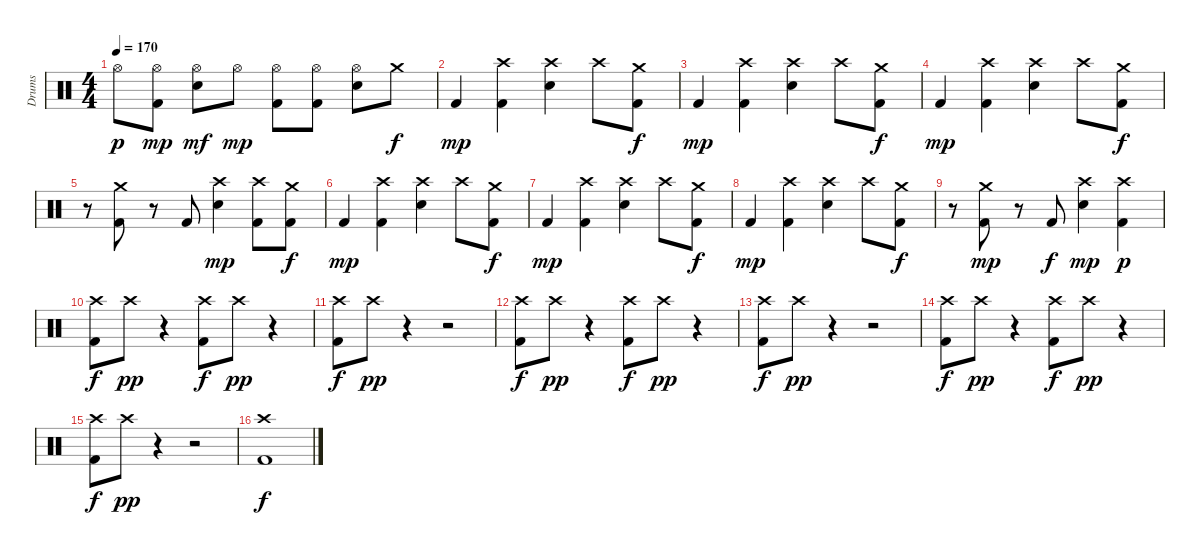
\track ("Drums" "Drums") {instrument percussion}
\staff {score}
\articulation defaults
\ts (4 4)
\tempo 170
\clef neutral
\ks c "Hi-Hat (open)".8{dy p}
("Hi-Hat (open)" "Kick (hit) 2").8{dy mp} ("Hi-Hat (open)" "Electric Snare (hit)").8{dy mf} "Hi-Hat (open)".8{dy mp} ("Hi-Hat (open)" "Kick (hit) 2").8 ("Hi-Hat (open)" "Kick (hit) 2").8 ("Hi-Hat (open)" "Electric Snare (hit)").8 "Crash medium (hit)".8{dy f} |
"Kick (hit) 2".4{dy mp} ("Crash high (hit)" "Kick (hit) 2").4 ("Crash high (hit)" "Electric Snare (hit)").4 "Crash high (hit)".8 ("Crash medium (hit)" "Kick (hit) 2").8{dy f} |
"Kick (hit) 2".4{dy mp} ("Crash high (hit)" "Kick (hit) 2").4 ("Crash high (hit)" "Electric Snare (hit)").4 "Crash high (hit)".8 ("Crash medium (hit)" "Kick (hit) 2").8{dy f} |
"Kick (hit) 2".4{dy mp} ("Crash high (hit)" "Kick (hit) 2").4 ("Crash high (hit)" "Electric Snare (hit)").4 "Crash high (hit)".8 ("Crash medium (hit)" "Kick (hit) 2").8{dy f} |
r.8 ("Crash medium (hit)" "Kick (hit) 2").8 r.8 "Kick (hit) 2".8 ("Crash high (hit)" "Electric Snare (hit)").4{dy mp} ("Crash high (hit)" "Kick (hit) 2").8 ("Crash medium (hit)" "Kick (hit) 2").8{dy f} |
"Kick (hit) 2".4{dy mp} ("Crash high (hit)" "Kick (hit) 2").4 ("Crash high (hit)" "Electric Snare (hit)").4 "Crash high (hit)".8 ("Crash medium (hit)" "Kick (hit) 2").8{dy f} |
"Kick (hit) 2".4{dy mp} ("Crash high (hit)" "Kick (hit) 2").4 ("Crash high (hit)" "Electric Snare (hit)").4 "Crash high (hit)".8 ("Crash medium (hit)" "Kick (hit) 2").8{dy f} |
"Kick (hit) 2".4{dy mp} ("Crash high (hit)" "Kick (hit) 2").4 ("Crash high (hit)" "Electric Snare (hit)").4 "Crash high (hit)".8 ("Crash medium (hit)" "Kick (hit) 2").8{dy f} |
r.8 ("Crash medium (hit)" "Kick (hit) 2").8{dy mp} r.8 "Kick (hit) 2".8{dy f} ("Crash high (hit)" "Electric Snare (hit)").4{dy mp} ("Crash high (hit)" "Kick (hit) 2").4{dy p} |
("Crash high (hit)" "Kick (hit) 2").8{dy f} "Crash high (hit)".8{dy pp} r.4 ("Crash high (hit)" "Kick (hit) 2").8{dy f} "Crash high (hit)".8{dy pp} r.4 |
("Crash high (hit)" "Kick (hit) 2").8{dy f} "Crash high (hit)".8{dy pp} r.4 r.2 |
("Crash high (hit)" "Kick (hit) 2").8{dy f} "Crash high (hit)".8{dy pp} r.4 ("Crash high (hit)" "Kick (hit) 2").8{dy f} "Crash high (hit)".8{dy pp} r.4 |
("Crash high (hit)" "Kick (hit) 2").8{dy f} "Crash high (hit)".8{dy pp} r.4 r.2 |
("Crash high (hit)" "Kick (hit) 2").8{dy f} "Crash high (hit)".8{dy pp} r.4 ("Crash high (hit)" "Kick (hit) 2").8{dy f} "Crash high (hit)".8{dy pp} r.4 |
("Crash high (hit)" "Kick (hit) 2").8{dy f} "Crash high (hit)".8{dy pp} r.4 r.2 |
("Crash high (hit)" "Kick (hit) 2").1{dy f}
